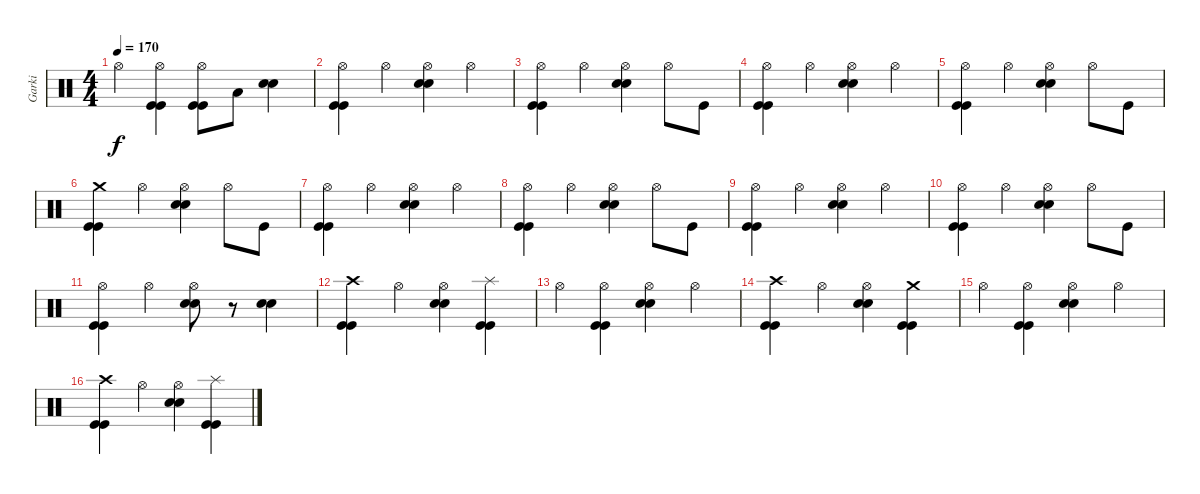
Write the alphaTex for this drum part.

\track ("Garki" "Garki") {instrument percussion}
\staff {score}
\articulation defaults
\ts (4 4)
\tempo 170
\clef neutral
\ks c "Hi-Hat (open)".4{dy f}
("Kick (hit)" "Kick (hit)" "Hi-Hat (open)").4 ("Kick (hit)" "Kick (hit)" "Hi-Hat (open)").8 "Low Tom (hit)".8 ("Electric Snare (hit)" "Electric Snare (hit)").4 |
("Kick (hit)" "Kick (hit)" "Hi-Hat (open)").4 "Hi-Hat (open)".4 ("Electric Snare (hit)" "Electric Snare (hit)" "Hi-Hat (open)").4 "Hi-Hat (open)".4 |
("Kick (hit)" "Kick (hit)" "Hi-Hat (open)").4 "Hi-Hat (open)".4 ("Electric Snare (hit)" "Electric Snare (hit)" "Hi-Hat (open)").4 "Hi-Hat (open)".8 "Kick (hit)".8 |
("Kick (hit)" "Kick (hit)" "Hi-Hat (open)").4 "Hi-Hat (open)".4 ("Electric Snare (hit)" "Electric Snare (hit)" "Hi-Hat (open)").4 "Hi-Hat (open)".4 |
("Kick (hit)" "Kick (hit)" "Hi-Hat (open)").4 "Hi-Hat (open)".4 ("Electric Snare (hit)" "Electric Snare (hit)" "Hi-Hat (open)").4 "Hi-Hat (open)".8 "Kick (hit)".8 |
("Kick (hit)" "Kick (hit)" "Crash medium (hit)").4 "Hi-Hat (open)".4 ("Electric Snare (hit)" "Electric Snare (hit)" "Hi-Hat (open)").4 "Hi-Hat (open)".8 "Kick (hit)".8 |
("Kick (hit)" "Kick (hit)" "Hi-Hat (open)").4 "Hi-Hat (open)".4 ("Electric Snare (hit)" "Electric Snare (hit)" "Hi-Hat (open)").4 "Hi-Hat (open)".4 |
("Kick (hit)" "Kick (hit)" "Hi-Hat (open)").4 "Hi-Hat (open)".4 ("Electric Snare (hit)" "Electric Snare (hit)" "Hi-Hat (open)").4 "Hi-Hat (open)".8 "Kick (hit)".8 |
("Kick (hit)" "Kick (hit)" "Hi-Hat (open)").4 "Hi-Hat (open)".4 ("Electric Snare (hit)" "Electric Snare (hit)" "Hi-Hat (open)").4 "Hi-Hat (open)".4 |
("Kick (hit)" "Kick (hit)" "Hi-Hat (open)").4 "Hi-Hat (open)".4 ("Electric Snare (hit)" "Electric Snare (hit)" "Hi-Hat (open)").4 "Hi-Hat (open)".8 "Kick (hit)".8 |
("Kick (hit)" "Kick (hit)" "Hi-Hat (open)").4 "Hi-Hat (open)".4 ("Electric Snare (hit)" "Electric Snare (hit)" "Hi-Hat (open)").8 r.8 ("Electric Snare (hit)" "Electric Snare (hit)").4 |
("Kick (hit)" "Kick (hit)" "Crash high (hit)").4 "Hi-Hat (open)".4 ("Electric Snare (hit)" "Electric Snare (hit)" "Hi-Hat (open)").4 ("Kick (hit)" "Kick (hit)" "Splash (hit)").4 |
"Hi-Hat (open)".4 ("Kick (hit)" "Kick (hit)" "Hi-Hat (open)").4 ("Electric Snare (hit)" "Electric Snare (hit)" "Hi-Hat (open)").4 "Hi-Hat (open)".4 |
("Kick (hit)" "Kick (hit)" "Crash high (hit)").4 "Hi-Hat (open)".4 ("Electric Snare (hit)" "Electric Snare (hit)" "Hi-Hat (open)").4 ("Kick (hit)" "Kick (hit)" "Crash medium (hit)").4 |
"Hi-Hat (open)".4 ("Kick (hit)" "Kick (hit)" "Hi-Hat (open)").4 ("Electric Snare (hit)" "Electric Snare (hit)" "Hi-Hat (open)").4 "Hi-Hat (open)".4 |
("Kick (hit)" "Kick (hit)" "Crash high (hit)").4 "Hi-Hat (open)".4 ("Electric Snare (hit)" "Electric Snare (hit)" "Hi-Hat (open)").4 ("Kick (hit)" "Kick (hit)" "Splash (hit)").4
